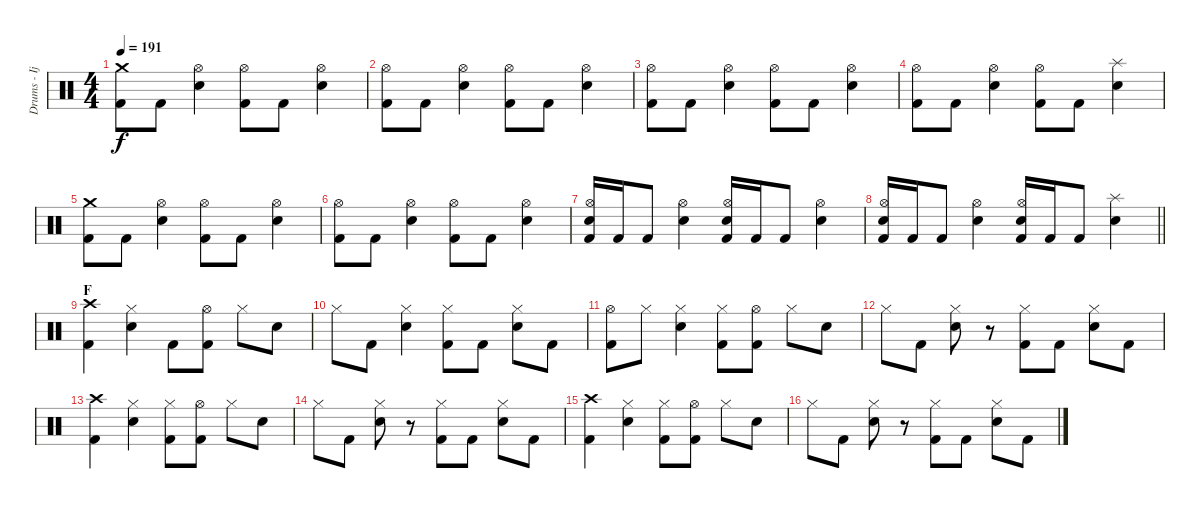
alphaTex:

\track ("Drums - Ijichi" "Drums - Ij") {instrument percussion}
\staff
\articulation defaults
\ts (4 4)
\tempo 191
\clef neutral
\ks c
("Crash medium (hit)" "Kick (hit) 2").8{dy f} "Kick (hit) 2".8 ("Hi-Hat (open)" "Electric Snare (hit)").4 ("Hi-Hat (open)" "Kick (hit) 2").8 "Kick (hit) 2".8 ("Hi-Hat (open)" "Electric Snare (hit)").4 |
("Hi-Hat (open)" "Kick (hit) 2").8 "Kick (hit) 2".8 ("Hi-Hat (open)" "Electric Snare (hit)").4 ("Hi-Hat (open)" "Kick (hit) 2").8 "Kick (hit) 2".8 ("Hi-Hat (open)" "Electric Snare (hit)").4 |
("Hi-Hat (open)" "Kick (hit) 2").8 "Kick (hit) 2".8 ("Hi-Hat (open)" "Electric Snare (hit)").4 ("Hi-Hat (open)" "Kick (hit) 2").8 "Kick (hit) 2".8 ("Hi-Hat (open)" "Electric Snare (hit)").4 |
("Hi-Hat (open)" "Kick (hit) 2").8 "Kick (hit) 2".8 ("Hi-Hat (open)" "Electric Snare (hit)").4 ("Hi-Hat (open)" "Kick (hit) 2").8 "Kick (hit) 2".8 ("Splash (hit)" "Electric Snare (hit)").4 |
("Crash medium (hit)" "Kick (hit) 2").8 "Kick (hit) 2".8 ("Hi-Hat (open)" "Electric Snare (hit)").4 ("Hi-Hat (open)" "Kick (hit) 2").8 "Kick (hit) 2".8 ("Hi-Hat (open)" "Electric Snare (hit)").4 |
("Hi-Hat (open)" "Kick (hit) 2").8 "Kick (hit) 2".8 ("Hi-Hat (open)" "Electric Snare (hit)").4 ("Hi-Hat (open)" "Kick (hit) 2").8 "Kick (hit) 2".8 ("Hi-Hat (open)" "Electric Snare (hit)").4 |
("Hi-Hat (open)" "Electric Snare (hit)" "Kick (hit) 2").16 "Kick (hit) 2".16 "Kick (hit) 2".8 ("Hi-Hat (open)" "Electric Snare (hit)").4 ("Hi-Hat (open)" "Electric Snare (hit)" "Kick (hit) 2").16 "Kick (hit) 2".16 "Kick (hit) 2".8 ("Hi-Hat (open)" "Electric Snare (hit)").4 |
\barLineRight lightlight
("Hi-Hat (open)" "Electric Snare (hit)" "Kick (hit) 2").16 "Kick (hit) 2".16 "Kick (hit) 2".8 ("Hi-Hat (open)" "Electric Snare (hit)").4 ("Hi-Hat (open)" "Electric Snare (hit)" "Kick (hit) 2").16 "Kick (hit) 2".16 "Kick (hit) 2".8 ("Splash (hit)" "Electric Snare (hit)").4 |
\section ("" "F")
("Crash high (hit)" "Kick (hit) 2").4 ("Hi-Hat (closed)" "Electric Snare (hit)").4 "Kick (hit) 2".8 ("Hi-Hat (open)" "Kick (hit) 2").8 "Hi-Hat (closed)".8 "Electric Snare (hit)".8 |
"Hi-Hat (closed)".8 "Kick (hit) 2".8 ("Hi-Hat (closed)" "Electric Snare (hit)").4 ("Hi-Hat (closed)" "Kick (hit) 2").8 "Kick (hit) 2".8 ("Hi-Hat (closed)" "Electric Snare (hit)").8 "Kick (hit) 2".8 |
("Hi-Hat (open)" "Kick (hit) 2").8 "Hi-Hat (closed)".8 ("Hi-Hat (closed)" "Electric Snare (hit)").4 ("Hi-Hat (closed)" "Kick (hit) 2").8 ("Hi-Hat (open)" "Kick (hit) 2").8 "Hi-Hat (closed)".8 "Electric Snare (hit)".8 |
"Hi-Hat (closed)".8 "Kick (hit) 2".8 ("Hi-Hat (closed)" "Electric Snare (hit)").8 r.8 ("Hi-Hat (closed)" "Kick (hit) 2").8 "Kick (hit) 2".8 ("Hi-Hat (closed)" "Electric Snare (hit)").8 "Kick (hit) 2".8 |
("Crash high (hit)" "Kick (hit) 2").4 ("Hi-Hat (closed)" "Electric Snare (hit)").4 ("Hi-Hat (closed)" "Kick (hit) 2").8 ("Hi-Hat (open)" "Kick (hit) 2").8 "Hi-Hat (closed)".8 "Electric Snare (hit)".8 |
"Hi-Hat (closed)".8 "Kick (hit) 2".8 ("Hi-Hat (closed)" "Electric Snare (hit)").8 r.8 ("Hi-Hat (closed)" "Kick (hit) 2").8 "Kick (hit) 2".8 ("Hi-Hat (closed)" "Electric Snare (hit)").8 "Kick (hit) 2".8 |
("Crash high (hit)" "Kick (hit) 2").4 ("Hi-Hat (closed)" "Electric Snare (hit)").4 ("Hi-Hat (closed)" "Kick (hit) 2").8 ("Hi-Hat (open)" "Kick (hit) 2").8 "Hi-Hat (closed)".8 "Electric Snare (hit)".8 |
"Hi-Hat (closed)".8 "Kick (hit) 2".8 ("Hi-Hat (closed)" "Electric Snare (hit)").8 r.8 ("Hi-Hat (closed)" "Kick (hit) 2").8 "Kick (hit) 2".8 ("Hi-Hat (closed)" "Electric Snare (hit)").8 "Kick (hit) 2".8
